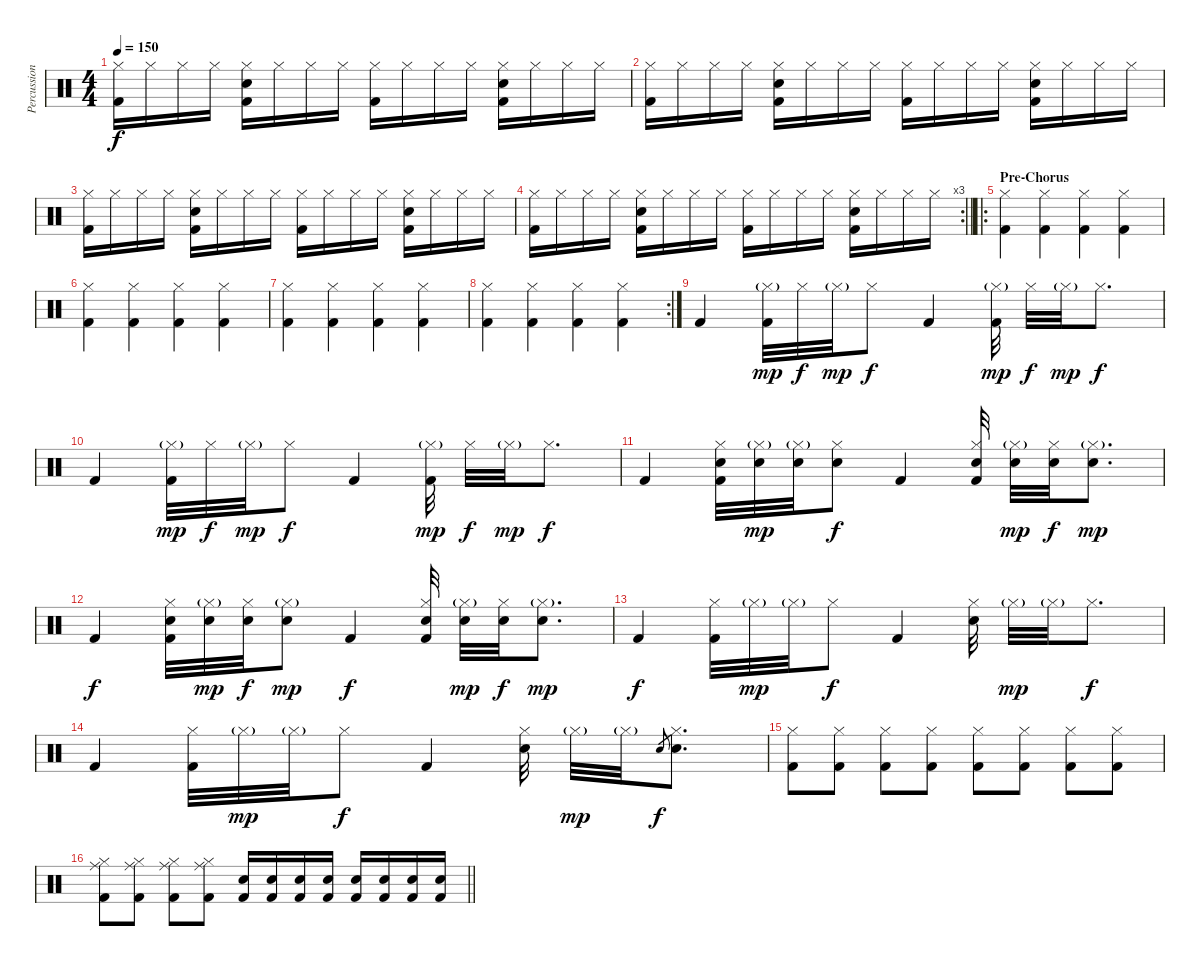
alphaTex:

\track ("Percussion" "Percussion") {instrument percussion}
\staff {score}
\articulation defaults
\ts (4 4)
\tempo 150
\clef neutral
\ks c
("Kick (hit) 2" "Hi-Hat (closed)").16{dy f} "Hi-Hat (closed)".16 "Hi-Hat (closed)".16 "Hi-Hat (closed)".16 ("Hi-Hat (closed)" "Kick (hit) 2" "Snare (hit) 2").16 "Hi-Hat (closed)".16 "Hi-Hat (closed)".16 "Hi-Hat (closed)".16 ("Hi-Hat (closed)" "Kick (hit) 2").16 "Hi-Hat (closed)".16 "Hi-Hat (closed)".16 "Hi-Hat (closed)".16 ("Hi-Hat (closed)" "Kick (hit) 2" "Snare (hit) 2").16 "Hi-Hat (closed)".16 "Hi-Hat (closed)".16 "Hi-Hat (closed)".16 |
("Kick (hit) 2" "Hi-Hat (closed)").16 "Hi-Hat (closed)".16 "Hi-Hat (closed)".16 "Hi-Hat (closed)".16 ("Hi-Hat (closed)" "Kick (hit) 2" "Snare (hit) 2").16 "Hi-Hat (closed)".16 "Hi-Hat (closed)".16 "Hi-Hat (closed)".16 ("Hi-Hat (closed)" "Kick (hit) 2").16 "Hi-Hat (closed)".16 "Hi-Hat (closed)".16 "Hi-Hat (closed)".16 ("Hi-Hat (closed)" "Kick (hit) 2" "Snare (hit) 2").16 "Hi-Hat (closed)".16 "Hi-Hat (closed)".16 "Hi-Hat (closed)".16 |
("Kick (hit) 2" "Hi-Hat (closed)").16 "Hi-Hat (closed)".16 "Hi-Hat (closed)".16 "Hi-Hat (closed)".16 ("Hi-Hat (closed)" "Kick (hit) 2" "Snare (hit) 2").16 "Hi-Hat (closed)".16 "Hi-Hat (closed)".16 "Hi-Hat (closed)".16 ("Hi-Hat (closed)" "Kick (hit) 2").16 "Hi-Hat (closed)".16 "Hi-Hat (closed)".16 "Hi-Hat (closed)".16 ("Hi-Hat (closed)" "Kick (hit) 2" "Snare (hit) 2").16 "Hi-Hat (closed)".16 "Hi-Hat (closed)".16 "Hi-Hat (closed)".16 |
\rc 3
\barLineRight lightlight
("Kick (hit) 2" "Hi-Hat (closed)").16 "Hi-Hat (closed)".16 "Hi-Hat (closed)".16 "Hi-Hat (closed)".16 ("Hi-Hat (closed)" "Kick (hit) 2" "Snare (hit) 2").16 "Hi-Hat (closed)".16 "Hi-Hat (closed)".16 "Hi-Hat (closed)".16 ("Hi-Hat (closed)" "Kick (hit) 2").16 "Hi-Hat (closed)".16 "Hi-Hat (closed)".16 "Hi-Hat (closed)".16 ("Hi-Hat (closed)" "Kick (hit) 2" "Snare (hit) 2").16 "Hi-Hat (closed)".16 "Hi-Hat (closed)".16 "Hi-Hat (closed)".16 |
\ro
\section ("" "Pre-Chorus")
("Kick (hit) 2" "Hi-Hat (closed)").4 ("Kick (hit) 2" "Hi-Hat (closed)").4 ("Kick (hit) 2" "Hi-Hat (closed)").4 ("Kick (hit) 2" "Hi-Hat (closed)").4 |
("Kick (hit) 2" "Hi-Hat (closed)").4 ("Kick (hit) 2" "Hi-Hat (closed)").4 ("Kick (hit) 2" "Hi-Hat (closed)").4 ("Kick (hit) 2" "Hi-Hat (closed)").4 |
("Kick (hit) 2" "Hi-Hat (closed)").4 ("Kick (hit) 2" "Hi-Hat (closed)").4 ("Kick (hit) 2" "Hi-Hat (closed)").4 ("Kick (hit) 2" "Hi-Hat (closed)").4 |
\rc 2
("Kick (hit) 2" "Hi-Hat (closed)").4 ("Kick (hit) 2" "Hi-Hat (closed)").4 ("Kick (hit) 2" "Hi-Hat (closed)").4 ("Kick (hit) 2" "Hi-Hat (closed)").4 |
"Kick (hit) 2".4 ("Hi-Hat (closed)"{g} "Kick (hit) 2").32{dy mp} "Hi-Hat (closed)".32{dy f} "Hi-Hat (closed)"{g}.32{dy mp} "Hi-Hat (closed)".8{dy f} "Kick (hit) 2".4 ("Hi-Hat (closed)"{g} "Kick (hit) 2").32{dy mp} "Hi-Hat (closed)".32{dy f} "Hi-Hat (closed)"{g}.32{dy mp} "Hi-Hat (closed)".8{d dy f} |
"Kick (hit) 2".4 ("Hi-Hat (closed)"{g} "Kick (hit) 2").32{dy mp} "Hi-Hat (closed)".32{dy f} "Hi-Hat (closed)"{g}.32{dy mp} "Hi-Hat (closed)".8{dy f} "Kick (hit) 2".4 ("Hi-Hat (closed)"{g} "Kick (hit) 2").32{dy mp} "Hi-Hat (closed)".32{dy f} "Hi-Hat (closed)"{g}.32{dy mp} "Hi-Hat (closed)".8{d dy f} |
"Kick (hit) 2".4 ("Hi-Hat (closed)" "Snare (hit) 2" "Kick (hit) 2").32 ("Hi-Hat (closed)"{g} "Snare (hit) 2").32{dy mp} ("Hi-Hat (closed)"{g} "Snare (hit) 2").32 ("Hi-Hat (closed)" "Snare (hit) 2").8{dy f} "Kick (hit) 2".4 ("Hi-Hat (closed)" "Snare (hit) 2" "Kick (hit) 2").32 ("Hi-Hat (closed)"{g} "Snare (hit) 2").32{dy mp} ("Hi-Hat (closed)" "Snare (hit) 2").32{dy f} ("Hi-Hat (closed)"{g} "Snare (hit) 2").8{d dy mp} |
"Kick (hit) 2".4{dy f} ("Hi-Hat (closed)" "Kick (hit) 2" "Snare (hit) 2").32 ("Hi-Hat (closed)"{g} "Snare (hit) 2").32{dy mp} ("Hi-Hat (closed)" "Snare (hit) 2").32{dy f} ("Hi-Hat (closed)"{g} "Snare (hit) 2").8{dy mp} "Kick (hit) 2".4{dy f} ("Hi-Hat (closed)" "Kick (hit) 2" "Snare (hit) 2").32 ("Hi-Hat (closed)"{g} "Snare (hit) 2").32{dy mp} ("Hi-Hat (closed)" "Snare (hit) 2").32{dy f} ("Hi-Hat (closed)"{g} "Snare (hit) 2").8{d dy mp} |
"Kick (hit) 2".4{dy f} ("Hi-Hat (closed)" "Kick (hit) 2").32 "Hi-Hat (closed)"{g}.32{dy mp} "Hi-Hat (closed)"{g}.32 "Hi-Hat (closed)".8{dy f} "Kick (hit) 2".4 ("Hi-Hat (closed)" "Snare (hit) 2").32 "Hi-Hat (closed)"{g}.32{dy mp} "Hi-Hat (closed)"{g}.32 "Hi-Hat (closed)".8{d dy f} |
"Kick (hit) 2".4 ("Hi-Hat (closed)" "Kick (hit) 2").32 "Hi-Hat (closed)"{g}.32{dy mp} "Hi-Hat (closed)"{g}.32 "Hi-Hat (closed)".8{dy f} "Kick (hit) 2".4 ("Hi-Hat (closed)" "Snare (hit) 2").32 "Hi-Hat (closed)"{g}.32{dy mp} "Hi-Hat (closed)"{g}.32 "Snare (hit) 2".8{gr dy f} ("Hi-Hat (closed)" "Snare (hit) 2").8{d} |
("Kick (hit) 2" "Hi-Hat (closed)").8 ("Kick (hit) 2" "Hi-Hat (closed)").8 ("Kick (hit) 2" "Hi-Hat (closed)").8 ("Kick (hit) 2" "Hi-Hat (closed)").8 ("Kick (hit) 2" "Hi-Hat (closed)").8 ("Kick (hit) 2" "Hi-Hat (closed)").8 ("Kick (hit) 2" "Hi-Hat (closed)").8 ("Kick (hit) 2" "Hi-Hat (closed)").8 |
\barLineRight lightlight
("Kick (hit) 2" "Ride (middle)" "Hi-Hat (closed)").8 ("Kick (hit) 2" "Ride (middle)" "Hi-Hat (closed)").8 ("Kick (hit) 2" "Ride (middle)" "Hi-Hat (closed)").8 ("Kick (hit) 2" "Ride (middle)" "Hi-Hat (closed)").8 ("Kick (hit) 2" "Snare (hit) 2").16 ("Kick (hit) 2" "Snare (hit) 2").16 ("Kick (hit) 2" "Snare (hit) 2").16 ("Kick (hit) 2" "Snare (hit) 2").16 ("Kick (hit) 2" "Snare (hit) 2").16 ("Kick (hit) 2" "Snare (hit) 2").16 ("Kick (hit) 2" "Snare (hit) 2").16 ("Kick (hit) 2" "Snare (hit) 2").16
